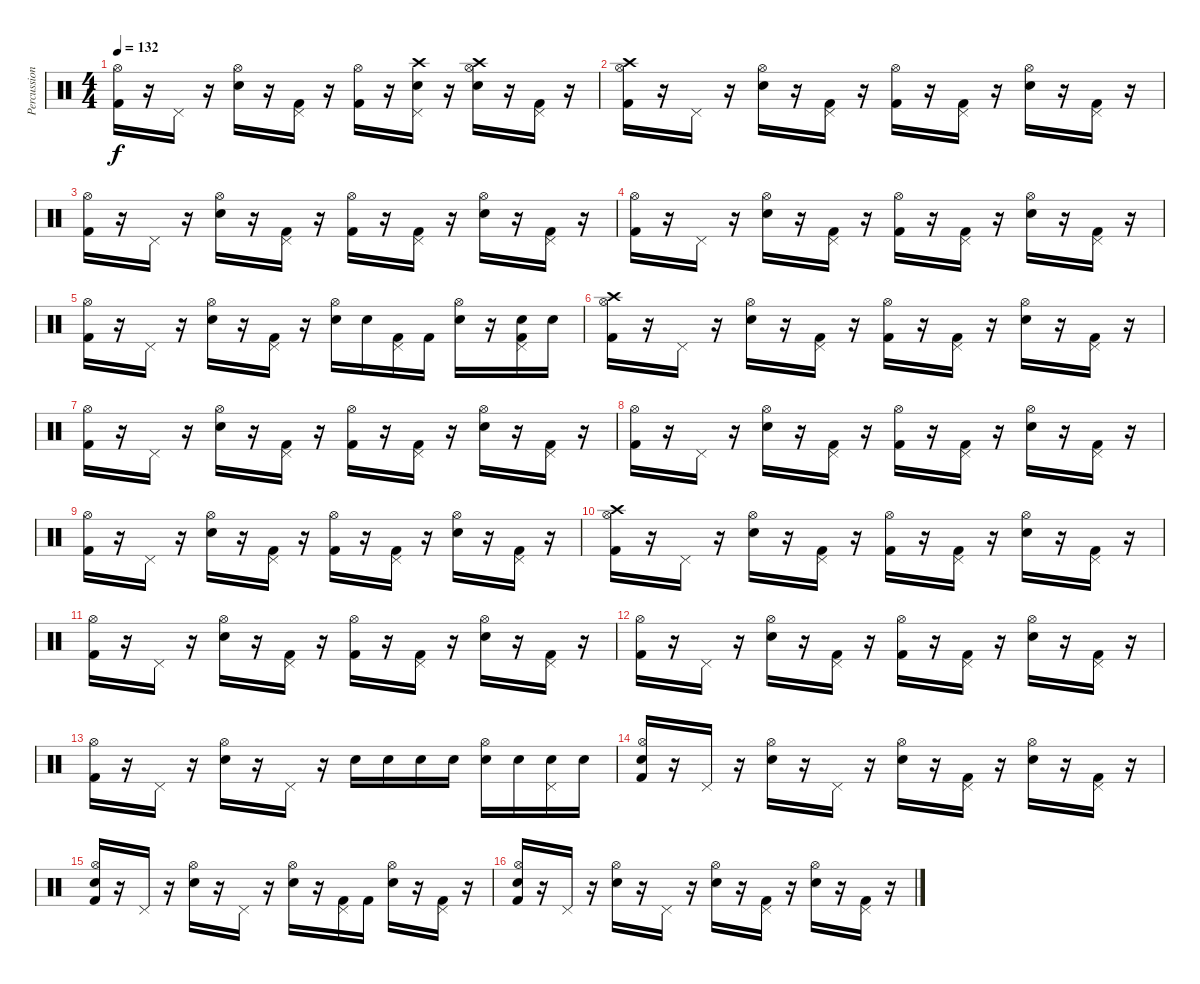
\track ("Percussion" "Percussion") {instrument percussion}
\staff {score}
\articulation defaults
\ts (4 4)
\tempo 132
\clef neutral
\ks c
("Kick (hit) 2" "Hi-Hat (open)").16{dy f} r.16 "Pedal Hi-Hat (hit)".16 r.16 ("Snare (hit) 2" "Hi-Hat (open)").16 r.16 ("Kick (hit) 2" "Pedal Hi-Hat (hit)").16 r.16 ("Kick (hit) 2" "Hi-Hat (open)").16 r.16 ("Pedal Hi-Hat (hit)" "Crash high (hit)" "Snare (hit) 2").16 r.16 ("Snare (hit) 2" "Hi-Hat (open)" "Crash high (hit)").16 r.16 ("Kick (hit) 2" "Pedal Hi-Hat (hit)").16 r.16 |
("Crash high (hit)" "Hi-Hat (open)" "Kick (hit) 2").16 r.16 "Pedal Hi-Hat (hit)".16 r.16 ("Hi-Hat (open)" "Snare (hit) 2").16 r.16 ("Pedal Hi-Hat (hit)" "Kick (hit) 2").16 r.16 ("Hi-Hat (open)" "Kick (hit) 2").16 r.16 ("Pedal Hi-Hat (hit)" "Kick (hit) 2").16 r.16 ("Hi-Hat (open)" "Snare (hit) 2").16 r.16 ("Pedal Hi-Hat (hit)" "Kick (hit) 2").16 r.16 |
("Kick (hit) 2" "Hi-Hat (open)").16 r.16 "Pedal Hi-Hat (hit)".16 r.16 ("Snare (hit) 2" "Hi-Hat (open)").16 r.16 ("Kick (hit) 2" "Pedal Hi-Hat (hit)").16 r.16 ("Kick (hit) 2" "Hi-Hat (open)").16 r.16 ("Kick (hit) 2" "Pedal Hi-Hat (hit)").16 r.16 ("Snare (hit) 2" "Hi-Hat (open)").16 r.16 ("Kick (hit) 2" "Pedal Hi-Hat (hit)").16 r.16 |
("Kick (hit) 2" "Hi-Hat (open)").16 r.16 "Pedal Hi-Hat (hit)".16 r.16 ("Snare (hit) 2" "Hi-Hat (open)").16 r.16 ("Kick (hit) 2" "Pedal Hi-Hat (hit)").16 r.16 ("Kick (hit) 2" "Hi-Hat (open)").16 r.16 ("Kick (hit) 2" "Pedal Hi-Hat (hit)").16 r.16 ("Snare (hit) 2" "Hi-Hat (open)").16 r.16 ("Kick (hit) 2" "Pedal Hi-Hat (hit)").16 r.16 |
("Hi-Hat (open)" "Kick (hit) 2").16 r.16 "Pedal Hi-Hat (hit)".16 r.16 ("Snare (hit) 2" "Hi-Hat (open)").16 r.16 ("Kick (hit) 2" "Pedal Hi-Hat (hit)").16 r.16 ("Hi-Hat (open)" "Snare (hit) 2").16 "Snare (hit) 2".16 ("Kick (hit) 2" "Pedal Hi-Hat (hit)").16 "Kick (hit) 2".16 ("Snare (hit) 2" "Hi-Hat (open)").16 r.16 ("Kick (hit) 2" "Pedal Hi-Hat (hit)" "Snare (hit) 2").16 "Snare (hit) 2".16 |
("Crash high (hit)" "Hi-Hat (open)" "Kick (hit) 2").16 r.16 "Pedal Hi-Hat (hit)".16 r.16 ("Hi-Hat (open)" "Snare (hit) 2").16 r.16 ("Pedal Hi-Hat (hit)" "Kick (hit) 2").16 r.16 ("Hi-Hat (open)" "Kick (hit) 2").16 r.16 ("Pedal Hi-Hat (hit)" "Kick (hit) 2").16 r.16 ("Hi-Hat (open)" "Snare (hit) 2").16 r.16 ("Pedal Hi-Hat (hit)" "Kick (hit) 2").16 r.16 |
("Kick (hit) 2" "Hi-Hat (open)").16 r.16 "Pedal Hi-Hat (hit)".16 r.16 ("Snare (hit) 2" "Hi-Hat (open)").16 r.16 ("Kick (hit) 2" "Pedal Hi-Hat (hit)").16 r.16 ("Kick (hit) 2" "Hi-Hat (open)").16 r.16 ("Kick (hit) 2" "Pedal Hi-Hat (hit)").16 r.16 ("Snare (hit) 2" "Hi-Hat (open)").16 r.16 ("Kick (hit) 2" "Pedal Hi-Hat (hit)").16 r.16 |
("Kick (hit) 2" "Hi-Hat (open)").16 r.16 "Pedal Hi-Hat (hit)".16 r.16 ("Snare (hit) 2" "Hi-Hat (open)").16 r.16 ("Kick (hit) 2" "Pedal Hi-Hat (hit)").16 r.16 ("Kick (hit) 2" "Hi-Hat (open)").16 r.16 ("Kick (hit) 2" "Pedal Hi-Hat (hit)").16 r.16 ("Snare (hit) 2" "Hi-Hat (open)").16 r.16 ("Kick (hit) 2" "Pedal Hi-Hat (hit)").16 r.16 |
("Kick (hit) 2" "Hi-Hat (open)").16 r.16 "Pedal Hi-Hat (hit)".16 r.16 ("Snare (hit) 2" "Hi-Hat (open)").16 r.16 ("Kick (hit) 2" "Pedal Hi-Hat (hit)").16 r.16 ("Kick (hit) 2" "Hi-Hat (open)").16 r.16 ("Kick (hit) 2" "Pedal Hi-Hat (hit)").16 r.16 ("Snare (hit) 2" "Hi-Hat (open)").16 r.16 ("Kick (hit) 2" "Pedal Hi-Hat (hit)").16 r.16 |
("Crash high (hit)" "Hi-Hat (open)" "Kick (hit) 2").16 r.16 "Pedal Hi-Hat (hit)".16 r.16 ("Hi-Hat (open)" "Snare (hit) 2").16 r.16 ("Pedal Hi-Hat (hit)" "Kick (hit) 2").16 r.16 ("Hi-Hat (open)" "Kick (hit) 2").16 r.16 ("Pedal Hi-Hat (hit)" "Kick (hit) 2").16 r.16 ("Hi-Hat (open)" "Snare (hit) 2").16 r.16 ("Pedal Hi-Hat (hit)" "Kick (hit) 2").16 r.16 |
("Kick (hit) 2" "Hi-Hat (open)").16 r.16 "Pedal Hi-Hat (hit)".16 r.16 ("Snare (hit) 2" "Hi-Hat (open)").16 r.16 ("Kick (hit) 2" "Pedal Hi-Hat (hit)").16 r.16 ("Kick (hit) 2" "Hi-Hat (open)").16 r.16 ("Kick (hit) 2" "Pedal Hi-Hat (hit)").16 r.16 ("Snare (hit) 2" "Hi-Hat (open)").16 r.16 ("Kick (hit) 2" "Pedal Hi-Hat (hit)").16 r.16 |
("Kick (hit) 2" "Hi-Hat (open)").16 r.16 "Pedal Hi-Hat (hit)".16 r.16 ("Snare (hit) 2" "Hi-Hat (open)").16 r.16 ("Kick (hit) 2" "Pedal Hi-Hat (hit)").16 r.16 ("Kick (hit) 2" "Hi-Hat (open)").16 r.16 ("Kick (hit) 2" "Pedal Hi-Hat (hit)").16 r.16 ("Snare (hit) 2" "Hi-Hat (open)").16 r.16 ("Kick (hit) 2" "Pedal Hi-Hat (hit)").16 r.16 |
("Kick (hit) 2" "Hi-Hat (open)").16 r.16 "Pedal Hi-Hat (hit)".16 r.16 ("Snare (hit) 2" "Hi-Hat (open)").16 r.16 "Pedal Hi-Hat (hit)".16 r.16 "Snare (hit) 2".16 "Snare (hit) 2".16 "Snare (hit) 2".16 "Snare (hit) 2".16 ("Snare (hit) 2" "Hi-Hat (open)").16 "Snare (hit) 2".16 ("Snare (hit) 2" "Pedal Hi-Hat (hit)").16 "Snare (hit) 2".16 |
("Hi-Hat (open)" "Kick (hit) 2" "Snare (hit) 2").16 r.16 "Pedal Hi-Hat (hit)".16 r.16 ("Hi-Hat (open)" "Snare (hit) 2").16 r.16 "Pedal Hi-Hat (hit)".16 r.16 ("Hi-Hat (open)" "Snare (hit) 2").16 r.16 ("Pedal Hi-Hat (hit)" "Kick (hit) 2").16 r.16 ("Hi-Hat (open)" "Snare (hit) 2").16 r.16 ("Pedal Hi-Hat (hit)" "Kick (hit) 2").16 r.16 |
("Hi-Hat (open)" "Snare (hit) 2" "Kick (hit) 2").16 r.16 "Pedal Hi-Hat (hit)".16 r.16 ("Hi-Hat (open)" "Snare (hit) 2").16 r.16 "Pedal Hi-Hat (hit)".16 r.16 ("Hi-Hat (open)" "Snare (hit) 2").16 r.16 ("Pedal Hi-Hat (hit)" "Kick (hit) 2").16 "Kick (hit) 2".16 ("Hi-Hat (open)" "Snare (hit) 2").16 r.16 ("Pedal Hi-Hat (hit)" "Kick (hit) 2").16 r.16 |
("Hi-Hat (open)" "Kick (hit) 2" "Snare (hit) 2").16 r.16 "Pedal Hi-Hat (hit)".16 r.16 ("Hi-Hat (open)" "Snare (hit) 2").16 r.16 "Pedal Hi-Hat (hit)".16 r.16 ("Hi-Hat (open)" "Snare (hit) 2").16 r.16 ("Pedal Hi-Hat (hit)" "Kick (hit) 2").16 r.16 ("Hi-Hat (open)" "Snare (hit) 2").16 r.16 ("Pedal Hi-Hat (hit)" "Kick (hit) 2").16 r.16
